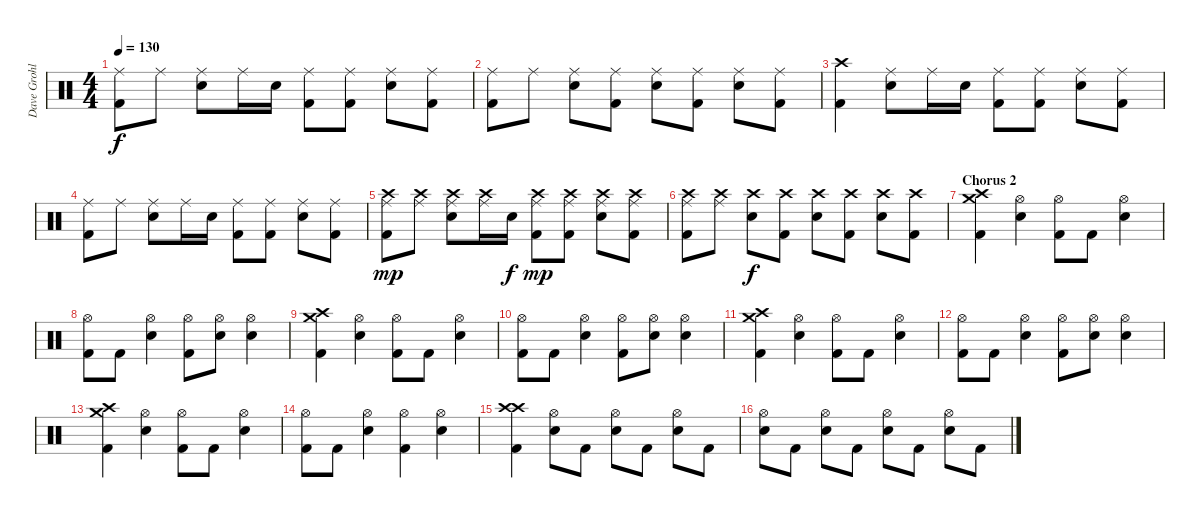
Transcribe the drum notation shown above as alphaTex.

\track ("Dave Grohl" "Dave Grohl") {instrument percussion}
\staff {score}
\articulation defaults
\ts (4 4)
\tempo 130
\clef neutral
\ks c
("Ride (middle)" "Kick (hit) 2").8{dy f} "Ride (middle)".8 ("Ride (middle)" "Electric Snare (hit)").8 "Ride (middle)".16 "Electric Snare (hit)".16 ("Ride (middle)" "Kick (hit) 2").8 ("Ride (middle)" "Kick (hit) 2").8 ("Ride (middle)" "Electric Snare (hit)").8 ("Ride (middle)" "Kick (hit) 2").8 |
("Ride (middle)" "Kick (hit) 2").8 "Ride (middle)".8 ("Ride (middle)" "Electric Snare (hit)").8 ("Ride (middle)" "Kick (hit) 2").8 ("Ride (middle)" "Electric Snare (hit)").8 ("Ride (middle)" "Kick (hit) 2").8 ("Ride (middle)" "Electric Snare (hit)").8 ("Ride (middle)" "Kick (hit) 2").8 |
("Crash high (hit)" "Kick (hit) 2").4 ("Ride (middle)" "Electric Snare (hit)").8 "Ride (middle)".16 "Electric Snare (hit)".16 ("Ride (middle)" "Kick (hit) 2").8 ("Ride (middle)" "Kick (hit) 2").8 ("Ride (middle)" "Electric Snare (hit)").8 ("Ride (middle)" "Kick (hit) 2").8 |
("Ride (middle)" "Kick (hit) 2").8 "Ride (middle)".8 ("Ride (middle)" "Electric Snare (hit)").8 "Ride (middle)".16 "Electric Snare (hit)".16 ("Ride (middle)" "Kick (hit) 2").8 ("Ride (middle)" "Kick (hit) 2").8 ("Ride (middle)" "Electric Snare (hit)").8 ("Ride (middle)" "Kick (hit) 2").8 |
("Ride (middle)" "Crash high (hit)" "Kick (hit) 2").8{dy mp} ("Ride (middle)" "Crash high (hit)").8 ("Ride (middle)" "Crash high (hit)" "Electric Snare (hit)").8 ("Ride (middle)" "Crash high (hit)").16 "Electric Snare (hit)".16{dy f} ("Ride (middle)" "Crash high (hit)" "Kick (hit) 2").8{dy mp} ("Ride (middle)" "Crash high (hit)" "Kick (hit) 2").8 ("Ride (middle)" "Crash high (hit)" "Electric Snare (hit)").8 ("Ride (middle)" "Crash high (hit)" "Kick (hit) 2").8 |
("Ride (middle)" "Crash high (hit)" "Kick (hit) 2").8 ("Ride (middle)" "Crash high (hit)").8 ("Crash high (hit)" "Electric Snare (hit)").8{dy f} ("Crash high (hit)" "Kick (hit) 2").8 ("Crash high (hit)" "Electric Snare (hit)").8 ("Crash high (hit)" "Kick (hit) 2").8 ("Crash high (hit)" "Electric Snare (hit)").8 ("Crash high (hit)" "Kick (hit) 2").8 |
\section ("" "Chorus 2")
("Crash high (hit)" "Crash medium (hit)" "Kick (hit) 2").4 ("Hi-Hat (open)" "Electric Snare (hit)").4 ("Hi-Hat (open)" "Kick (hit) 2").8 "Kick (hit) 2".8 ("Hi-Hat (open)" "Electric Snare (hit)").4 |
("Hi-Hat (open)" "Kick (hit) 2").8 "Kick (hit) 2".8 ("Hi-Hat (open)" "Electric Snare (hit)").4 ("Hi-Hat (open)" "Kick (hit) 2").8 ("Hi-Hat (open)" "Electric Snare (hit)").8 ("Hi-Hat (open)" "Electric Snare (hit)").4 |
("Crash high (hit)" "Crash medium (hit)" "Kick (hit) 2").4 ("Hi-Hat (open)" "Electric Snare (hit)").4 ("Hi-Hat (open)" "Kick (hit) 2").8 "Kick (hit) 2".8 ("Hi-Hat (open)" "Electric Snare (hit)").4 |
("Hi-Hat (open)" "Kick (hit) 2").8 "Kick (hit) 2".8 ("Hi-Hat (open)" "Electric Snare (hit)").4 ("Hi-Hat (open)" "Kick (hit) 2").8 ("Hi-Hat (open)" "Electric Snare (hit)").8 ("Hi-Hat (open)" "Electric Snare (hit)").4 |
("Crash high (hit)" "Crash medium (hit)" "Kick (hit) 2").4 ("Hi-Hat (open)" "Electric Snare (hit)").4 ("Hi-Hat (open)" "Kick (hit) 2").8 "Kick (hit) 2".8 ("Hi-Hat (open)" "Electric Snare (hit)").4 |
("Hi-Hat (open)" "Kick (hit) 2").8 "Kick (hit) 2".8 ("Hi-Hat (open)" "Electric Snare (hit)").4 ("Hi-Hat (open)" "Kick (hit) 2").8 ("Hi-Hat (open)" "Electric Snare (hit)").8 ("Hi-Hat (open)" "Electric Snare (hit)").4 |
("Crash high (hit)" "Crash medium (hit)" "Kick (hit) 2").4 ("Hi-Hat (open)" "Electric Snare (hit)").4 ("Hi-Hat (open)" "Kick (hit) 2").8 "Kick (hit) 2".8 ("Hi-Hat (open)" "Electric Snare (hit)").4 |
("Hi-Hat (open)" "Kick (hit) 2").8 "Kick (hit) 2".8 ("Hi-Hat (open)" "Electric Snare (hit)").4 ("Hi-Hat (open)" "Kick (hit) 2").4 ("Hi-Hat (open)" "Electric Snare (hit)").4 |
("Crash high (hit)" "Crash high (hit)" "Kick (hit) 2").4 ("Hi-Hat (open)" "Electric Snare (hit)").8 "Kick (hit) 2".8 ("Hi-Hat (open)" "Electric Snare (hit)").8 "Kick (hit) 2".8 ("Hi-Hat (open)" "Electric Snare (hit)").8 "Kick (hit) 2".8 |
("Hi-Hat (open)" "Electric Snare (hit)").8 "Kick (hit) 2".8 ("Hi-Hat (open)" "Electric Snare (hit)").8 "Kick (hit) 2".8 ("Hi-Hat (open)" "Electric Snare (hit)").8 "Kick (hit) 2".8 ("Hi-Hat (open)" "Electric Snare (hit)").8 "Kick (hit) 2".8
